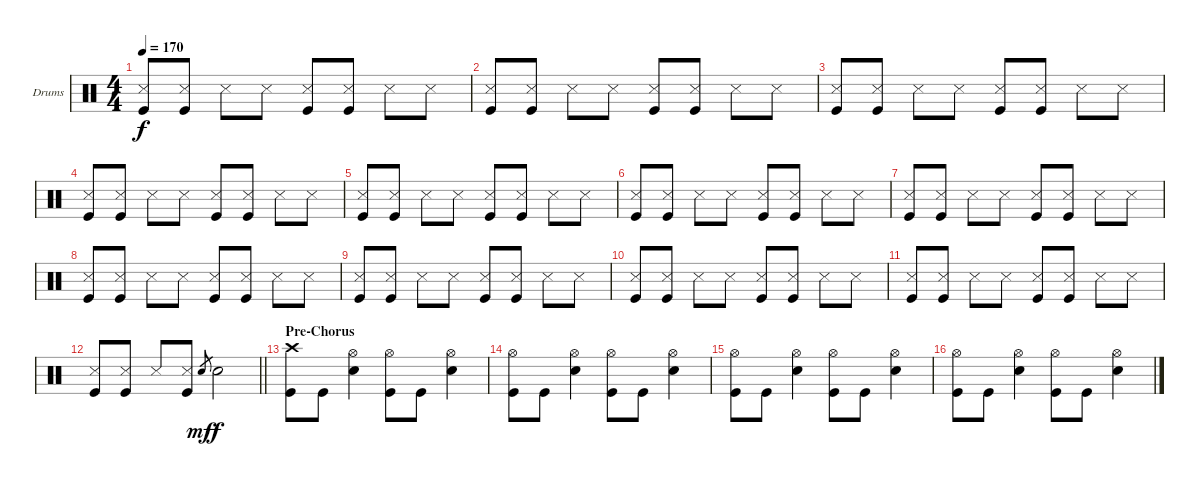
\bracketExtendMode groupsimilarinstruments
\firstSystemTrackNameOrientation horizontal
\otherSystemsTrackNameOrientation horizontal
\track ("Drumkit" "Drums") {instrument percussion}
\staff {score}
\articulation defaults
\ts (4 4)
\tempo 170
\clef neutral
\ks c
("Snare (side stick) 3" "Kick (hit)").8{dy f} ("Snare (side stick) 3" "Kick (hit)").8 "Snare (side stick) 3".8 "Snare (side stick) 3".8 ("Snare (side stick) 3" "Kick (hit)").8 ("Snare (side stick) 3" "Kick (hit)").8 "Snare (side stick) 3".8 "Snare (side stick) 3".8 |
("Snare (side stick) 3" "Kick (hit)").8 ("Snare (side stick) 3" "Kick (hit)").8 "Snare (side stick) 3".8 "Snare (side stick) 3".8 ("Snare (side stick) 3" "Kick (hit)").8 ("Snare (side stick) 3" "Kick (hit)").8 "Snare (side stick) 3".8 "Snare (side stick) 3".8 |
("Snare (side stick) 3" "Kick (hit)").8 ("Snare (side stick) 3" "Kick (hit)").8 "Snare (side stick) 3".8 "Snare (side stick) 3".8 ("Snare (side stick) 3" "Kick (hit)").8 ("Snare (side stick) 3" "Kick (hit)").8 "Snare (side stick) 3".8 "Snare (side stick) 3".8 |
("Snare (side stick) 3" "Kick (hit)").8 ("Snare (side stick) 3" "Kick (hit)").8 "Snare (side stick) 3".8 "Snare (side stick) 3".8 ("Snare (side stick) 3" "Kick (hit)").8 ("Snare (side stick) 3" "Kick (hit)").8 "Snare (side stick) 3".8 "Snare (side stick) 3".8 |
("Snare (side stick) 3" "Kick (hit)").8 ("Snare (side stick) 3" "Kick (hit)").8 "Snare (side stick) 3".8 "Snare (side stick) 3".8 ("Snare (side stick) 3" "Kick (hit)").8 ("Snare (side stick) 3" "Kick (hit)").8 "Snare (side stick) 3".8 "Snare (side stick) 3".8 |
("Snare (side stick) 3" "Kick (hit)").8 ("Snare (side stick) 3" "Kick (hit)").8 "Snare (side stick) 3".8 "Snare (side stick) 3".8 ("Snare (side stick) 3" "Kick (hit)").8 ("Snare (side stick) 3" "Kick (hit)").8 "Snare (side stick) 3".8 "Snare (side stick) 3".8 |
("Snare (side stick) 3" "Kick (hit)").8 ("Snare (side stick) 3" "Kick (hit)").8 "Snare (side stick) 3".8 "Snare (side stick) 3".8 ("Snare (side stick) 3" "Kick (hit)").8 ("Snare (side stick) 3" "Kick (hit)").8 "Snare (side stick) 3".8 "Snare (side stick) 3".8 |
("Snare (side stick) 3" "Kick (hit)").8 ("Snare (side stick) 3" "Kick (hit)").8 "Snare (side stick) 3".8 "Snare (side stick) 3".8 ("Snare (side stick) 3" "Kick (hit)").8 ("Snare (side stick) 3" "Kick (hit)").8 "Snare (side stick) 3".8 "Snare (side stick) 3".8 |
("Snare (side stick) 3" "Kick (hit)").8 ("Snare (side stick) 3" "Kick (hit)").8 "Snare (side stick) 3".8 "Snare (side stick) 3".8 ("Snare (side stick) 3" "Kick (hit)").8 ("Snare (side stick) 3" "Kick (hit)").8 "Snare (side stick) 3".8 "Snare (side stick) 3".8 |
("Snare (side stick) 3" "Kick (hit)").8 ("Snare (side stick) 3" "Kick (hit)").8 "Snare (side stick) 3".8 "Snare (side stick) 3".8 ("Snare (side stick) 3" "Kick (hit)").8 ("Snare (side stick) 3" "Kick (hit)").8 "Snare (side stick) 3".8 "Snare (side stick) 3".8 |
("Snare (side stick) 3" "Kick (hit)").8 ("Snare (side stick) 3" "Kick (hit)").8 "Snare (side stick) 3".8 "Snare (side stick) 3".8 ("Snare (side stick) 3" "Kick (hit)").8 ("Snare (side stick) 3" "Kick (hit)").8 "Snare (side stick) 3".8 "Snare (side stick) 3".8 |
\barLineRight lightlight
("Snare (side stick) 3" "Kick (hit)").8 ("Snare (side stick) 3" "Kick (hit)").8 "Snare (side stick) 3".8 ("Snare (side stick) 3" "Kick (hit)").8 "Snare (hit) 2".8{gr dy mf} "Snare (hit) 2".2{dy f} |
\section ("" "Pre-Chorus")
("Crash high (hit)" "Kick (hit)").8 "Kick (hit)".8 ("Hi-Hat (open)" "Snare (hit) 2").4 ("Hi-Hat (open)" "Kick (hit)").8 "Kick (hit)".8 ("Hi-Hat (open)" "Snare (hit) 2").4 |
("Hi-Hat (open)" "Kick (hit)").8 "Kick (hit)".8 ("Hi-Hat (open)" "Snare (hit) 2").4 ("Hi-Hat (open)" "Kick (hit)").8 "Kick (hit)".8 ("Hi-Hat (open)" "Snare (hit) 2").4 |
("Hi-Hat (open)" "Kick (hit)").8 "Kick (hit)".8 ("Hi-Hat (open)" "Snare (hit) 2").4 ("Hi-Hat (open)" "Kick (hit)").8 "Kick (hit)".8 ("Hi-Hat (open)" "Snare (hit) 2").4 |
("Hi-Hat (open)" "Kick (hit)").8 "Kick (hit)".8 ("Hi-Hat (open)" "Snare (hit) 2").4 ("Hi-Hat (open)" "Kick (hit)").8 "Kick (hit)".8 ("Hi-Hat (open)" "Snare (hit) 2").4
